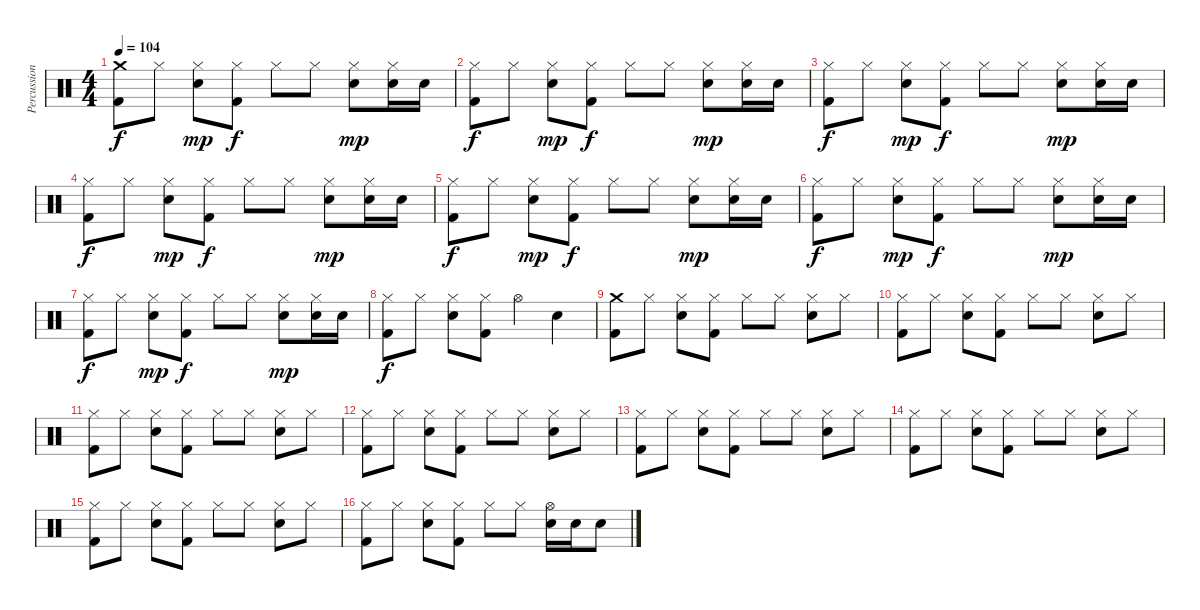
\track ("Percussion" "Percussion") {instrument percussion}
\staff {score}
\articulation defaults
\ts (4 4)
\tempo 104
\clef neutral
\ks c
("Crash medium (hit)" "Kick (hit) 2").8{dy f} "Hi-Hat (closed)".8 ("Hi-Hat (closed)" "Electric Snare (hit)").8{dy mp} ("Hi-Hat (closed)" "Kick (hit) 2").8{dy f} "Hi-Hat (closed)".8 "Hi-Hat (closed)".8 ("Hi-Hat (closed)" "Electric Snare (hit)").8{dy mp} ("Hi-Hat (closed)" "Electric Snare (hit)").16 "Electric Snare (hit)".16 |
("Hi-Hat (closed)" "Kick (hit) 2").8{dy f} "Hi-Hat (closed)".8 ("Hi-Hat (closed)" "Electric Snare (hit)").8{dy mp} ("Hi-Hat (closed)" "Kick (hit) 2").8{dy f} "Hi-Hat (closed)".8 "Hi-Hat (closed)".8 ("Hi-Hat (closed)" "Electric Snare (hit)").8{dy mp} ("Hi-Hat (closed)" "Electric Snare (hit)").16 "Electric Snare (hit)".16 |
("Hi-Hat (closed)" "Kick (hit) 2").8{dy f} "Hi-Hat (closed)".8 ("Hi-Hat (closed)" "Electric Snare (hit)").8{dy mp} ("Hi-Hat (closed)" "Kick (hit) 2").8{dy f} "Hi-Hat (closed)".8 "Hi-Hat (closed)".8 ("Hi-Hat (closed)" "Electric Snare (hit)").8{dy mp} ("Hi-Hat (closed)" "Electric Snare (hit)").16 "Electric Snare (hit)".16 |
("Hi-Hat (closed)" "Kick (hit) 2").8{dy f} "Hi-Hat (closed)".8 ("Hi-Hat (closed)" "Electric Snare (hit)").8{dy mp} ("Hi-Hat (closed)" "Kick (hit) 2").8{dy f} "Hi-Hat (closed)".8 "Hi-Hat (closed)".8 ("Hi-Hat (closed)" "Electric Snare (hit)").8{dy mp} ("Hi-Hat (closed)" "Electric Snare (hit)").16 "Electric Snare (hit)".16 |
("Hi-Hat (closed)" "Kick (hit) 2").8{dy f} "Hi-Hat (closed)".8 ("Hi-Hat (closed)" "Electric Snare (hit)").8{dy mp} ("Hi-Hat (closed)" "Kick (hit) 2").8{dy f} "Hi-Hat (closed)".8 "Hi-Hat (closed)".8 ("Hi-Hat (closed)" "Electric Snare (hit)").8{dy mp} ("Hi-Hat (closed)" "Electric Snare (hit)").16 "Electric Snare (hit)".16 |
("Hi-Hat (closed)" "Kick (hit) 2").8{dy f} "Hi-Hat (closed)".8 ("Hi-Hat (closed)" "Electric Snare (hit)").8{dy mp} ("Hi-Hat (closed)" "Kick (hit) 2").8{dy f} "Hi-Hat (closed)".8 "Hi-Hat (closed)".8 ("Hi-Hat (closed)" "Electric Snare (hit)").8{dy mp} ("Hi-Hat (closed)" "Electric Snare (hit)").16 "Electric Snare (hit)".16 |
("Hi-Hat (closed)" "Kick (hit) 2").8{dy f} "Hi-Hat (closed)".8 ("Hi-Hat (closed)" "Electric Snare (hit)").8{dy mp} ("Hi-Hat (closed)" "Kick (hit) 2").8{dy f} "Hi-Hat (closed)".8 "Hi-Hat (closed)".8 ("Hi-Hat (closed)" "Electric Snare (hit)").8{dy mp} ("Hi-Hat (closed)" "Electric Snare (hit)").16 "Electric Snare (hit)".16 |
("Hi-Hat (closed)" "Kick (hit) 2").8{dy f} "Hi-Hat (closed)".8 ("Hi-Hat (closed)" "Electric Snare (hit)").8 ("Hi-Hat (closed)" "Kick (hit) 2").8 "Hi-Hat (open)".4 "Electric Snare (hit)".4 |
("Crash medium (hit)" "Kick (hit) 2").8 "Hi-Hat (closed)".8 ("Hi-Hat (closed)" "Electric Snare (hit)").8 ("Hi-Hat (closed)" "Kick (hit) 2").8 "Hi-Hat (closed)".8 "Hi-Hat (closed)".8 ("Hi-Hat (closed)" "Electric Snare (hit)").8 "Hi-Hat (closed)".8 |
("Hi-Hat (closed)" "Kick (hit) 2").8 "Hi-Hat (closed)".8 ("Hi-Hat (closed)" "Electric Snare (hit)").8 ("Hi-Hat (closed)" "Kick (hit) 2").8 "Hi-Hat (closed)".8 "Hi-Hat (closed)".8 ("Hi-Hat (closed)" "Electric Snare (hit)").8 "Hi-Hat (closed)".8 |
("Hi-Hat (closed)" "Kick (hit) 2").8 "Hi-Hat (closed)".8 ("Hi-Hat (closed)" "Electric Snare (hit)").8 ("Hi-Hat (closed)" "Kick (hit) 2").8 "Hi-Hat (closed)".8 "Hi-Hat (closed)".8 ("Hi-Hat (closed)" "Electric Snare (hit)").8 "Hi-Hat (closed)".8 |
("Hi-Hat (closed)" "Kick (hit) 2").8 "Hi-Hat (closed)".8 ("Hi-Hat (closed)" "Electric Snare (hit)").8 ("Hi-Hat (closed)" "Kick (hit) 2").8 "Hi-Hat (closed)".8 "Hi-Hat (closed)".8 ("Hi-Hat (closed)" "Electric Snare (hit)").8 "Hi-Hat (closed)".8 |
("Hi-Hat (closed)" "Kick (hit) 2").8 "Hi-Hat (closed)".8 ("Hi-Hat (closed)" "Electric Snare (hit)").8 ("Hi-Hat (closed)" "Kick (hit) 2").8 "Hi-Hat (closed)".8 "Hi-Hat (closed)".8 ("Hi-Hat (closed)" "Electric Snare (hit)").8 "Hi-Hat (closed)".8 |
("Hi-Hat (closed)" "Kick (hit) 2").8 "Hi-Hat (closed)".8 ("Hi-Hat (closed)" "Electric Snare (hit)").8 ("Hi-Hat (closed)" "Kick (hit) 2").8 "Hi-Hat (closed)".8 "Hi-Hat (closed)".8 ("Hi-Hat (closed)" "Electric Snare (hit)").8 "Hi-Hat (closed)".8 |
("Hi-Hat (closed)" "Kick (hit) 2").8 "Hi-Hat (closed)".8 ("Hi-Hat (closed)" "Electric Snare (hit)").8 ("Hi-Hat (closed)" "Kick (hit) 2").8 "Hi-Hat (closed)".8 "Hi-Hat (closed)".8 ("Hi-Hat (closed)" "Electric Snare (hit)").8 "Hi-Hat (closed)".8 |
("Hi-Hat (closed)" "Kick (hit) 2").8 "Hi-Hat (closed)".8 ("Hi-Hat (closed)" "Electric Snare (hit)").8 ("Hi-Hat (closed)" "Kick (hit) 2").8 "Hi-Hat (closed)".8 "Hi-Hat (closed)".8 ("Hi-Hat (open)" "Electric Snare (hit)").16 "Electric Snare (hit)".16 "Electric Snare (hit)".8
